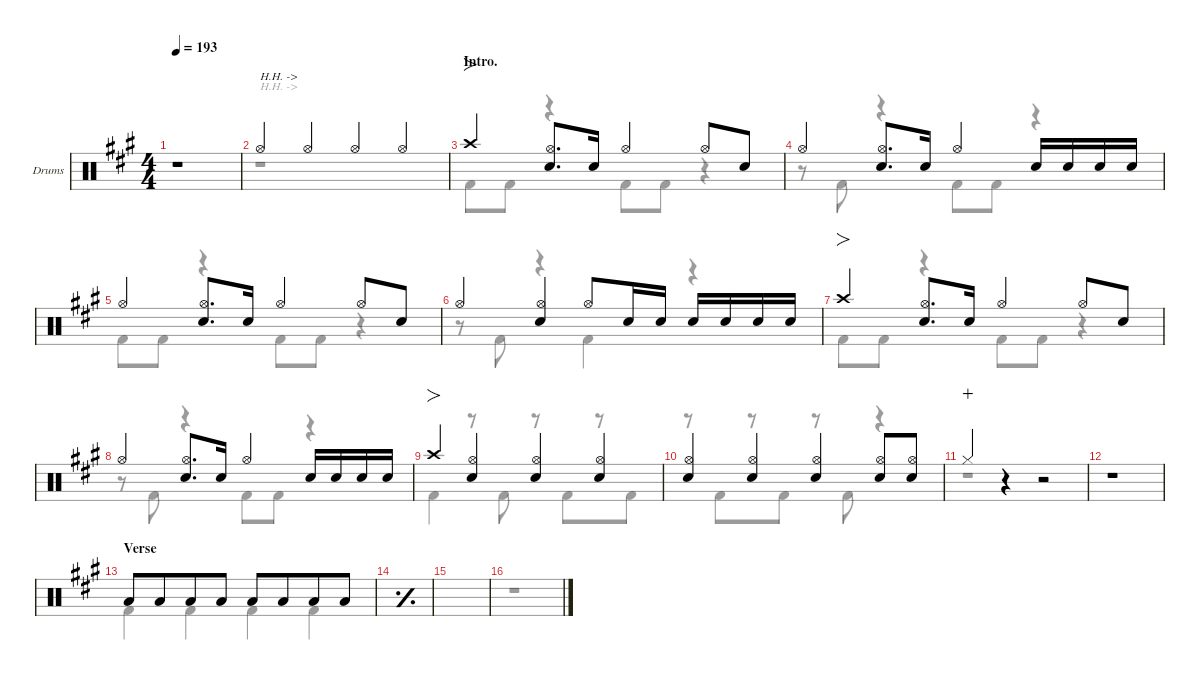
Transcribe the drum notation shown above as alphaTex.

\defaultSystemsLayout 4
\hideDynamics
\bracketExtendMode nobrackets
\firstSystemTrackNameOrientation horizontal
\track ("Drums" "Drums") {defaultSystemsLayout 4 instrument percussion}
\staff {score}
\articulation defaults
\voice
\ts (4 4)
\beaming (8 4 4)
\tempo 193
\clef neutral
\scale
0.516799
\ks a
r.1{dy f beam Up} |
\scale
0.483201 "Hi-Hat (open)"{acc forcenatural}.4{txt "H.H. ->" beam Up} "Hi-Hat (open)"{acc forcenatural}.4{beam Up} "Hi-Hat (open)"{acc forcenatural}.4{beam Up} "Hi-Hat (open)"{acc forcenatural}.4{beam Up} |
\section ("" "Intro.")
\scale
0.266618 "Crash high (hit)"{acc forcenatural}.4{fo beam Up} ("Hi-Hat (open)"{acc forcenatural} "Snare (hit) 2"{acc forcenatural}).8{d beam Up} "Snare (hit) 2"{acc forcenatural}.16{beam Up} "Hi-Hat (open)"{acc forcenatural}.4{beam Up} "Hi-Hat (open)"{acc forcenatural}.8{beam Up} "Snare (hit) 2"{acc forcenatural}.8{beam Up} |
\scale
0.244461 "Hi-Hat (open)"{acc forcenatural}.4{beam Up} ("Hi-Hat (open)"{acc forcenatural} "Snare (hit) 2"{acc forcenatural}).8{d beam Up} "Snare (hit) 2"{acc forcenatural}.16{beam Up} "Hi-Hat (open)"{acc forcenatural}.4{beam Up} "Snare (hit) 2"{acc forcenatural}.16{beam Up} "Snare (hit) 2"{acc forcenatural}.16{dy mf beam Up} "Snare (hit) 2"{acc forcenatural}.16{dy f beam Up} "Snare (hit) 2"{acc forcenatural}.16{dy mf beam Up} |
\scale
0.244461 "Hi-Hat (open)"{acc forcenatural}.4{dy f beam Up} ("Hi-Hat (open)"{acc forcenatural} "Snare (hit) 2"{acc forcenatural}).8{d beam Up} "Snare (hit) 2"{acc forcenatural}.16{beam Up} "Hi-Hat (open)"{acc forcenatural}.4{beam Up} "Hi-Hat (open)"{acc forcenatural}.8{beam Up} "Snare (hit) 2"{acc forcenatural}.8{beam Up} |
\scale
0.244461 "Hi-Hat (open)"{acc forcenatural}.4{beam Up} ("Hi-Hat (open)"{acc forcenatural} "Snare (hit) 2"{acc forcenatural}).4{beam Up} "Hi-Hat (open)"{acc forcenatural}.8{beam Up} "Snare (hit) 2"{acc forcenatural}.16{beam Up} "Snare (hit) 2"{acc forcenatural}.16{dy mf beam Up beam split} "Snare (hit) 2"{acc forcenatural}.16{dy f beam Up} "Snare (hit) 2"{acc forcenatural}.16{dy mf beam Up} "Snare (hit) 2"{acc forcenatural}.16{dy f beam Up} "Snare (hit) 2"{acc forcenatural}.16{dy mf beam Up} |
\scale
0.266618 "Crash high (hit)"{acc forcenatural}.4{fo dy f beam Up} ("Hi-Hat (open)"{acc forcenatural} "Snare (hit) 2"{acc forcenatural}).8{d beam Up} "Snare (hit) 2"{acc forcenatural}.16{beam Up} "Hi-Hat (open)"{acc forcenatural}.4{beam Up} "Hi-Hat (open)"{acc forcenatural}.8{beam Up} "Snare (hit) 2"{acc forcenatural}.8{beam Up} |
\scale
0.244461 "Hi-Hat (open)"{acc forcenatural}.4{beam Up} ("Hi-Hat (open)"{acc forcenatural} "Snare (hit) 2"{acc forcenatural}).8{d beam Up} "Snare (hit) 2"{acc forcenatural}.16{beam Up} "Hi-Hat (open)"{acc forcenatural}.4{beam Up} "Snare (hit) 2"{acc forcenatural}.16{beam Up} "Snare (hit) 2"{acc forcenatural}.16{dy mf beam Up} "Snare (hit) 2"{acc forcenatural}.16{dy f beam Up} "Snare (hit) 2"{acc forcenatural}.16{dy mf beam Up} |
\scale
0.244461 "Crash high (hit)"{acc forcenatural}.4{fo dy f beam Up} ("Hi-Hat (open)"{acc forcenatural} "Snare (hit) 2"{acc forcenatural}).4{beam Up} ("Hi-Hat (open)"{acc forcenatural} "Snare (hit) 2"{acc forcenatural}).4{beam Up} ("Hi-Hat (open)"{acc forcenatural} "Snare (hit) 2"{acc forcenatural}).4{beam Up} |
\scale
0.244461 ("Hi-Hat (open)"{acc forcenatural} "Snare (hit) 2"{acc forcenatural}).4{beam Up} ("Hi-Hat (open)"{acc forcenatural} "Snare (hit) 2"{acc forcenatural}).4{beam Up} ("Hi-Hat (open)"{acc forcenatural} "Snare (hit) 2"{acc forcenatural}).4{beam Up} ("Snare (hit) 2"{acc forcenatural} "Hi-Hat (open)"{acc forcenatural}).8{beam Up} ("Snare (hit) 2"{acc forcenatural} "Hi-Hat (open)"{acc forcenatural}).8{beam Up} |
\scale
0.511079 "Hi-Hat (closed)"{acc forcenatural}.4{dy mp wahc beam Up} r.4{beam Up} r.2{beam Up} |
\scale
0.488921 r.1{beam Up} |
\section ("" "Verse")
\scale
0.266618 "Low Tom (hit)"{acc forcenatural}.8{dy f beam Up} "Low Tom (hit)"{acc forcenatural}.8{beam Up} "Low Tom (hit)"{acc forcenatural}.8{beam Up} "Low Tom (hit)"{acc forcenatural}.8{beam Up} "Low Tom (hit)"{acc forcenatural}.8{beam Up} "Low Tom (hit)"{acc forcenatural}.8{beam Up} "Low Tom (hit)"{acc forcenatural}.8{beam Up} "Low Tom (hit)"{acc forcenatural}.8{beam Up} |
\simile simple
\scale
0.244461 |
\scale
0.244461 |
\scale
0.244461
\voice
\clef neutral
\ottava regular
\simile none
\scale
0.516799
\ks a
r.1{dy f beam Down} |
\scale
0.483201 r.1{txt "H.H. ->" beam Down} |
\scale
0.266618 "Kick (hit) 2"{acc forcenatural}.8{beam Down} "Kick (hit) 2"{acc forcenatural}.8{beam Down} r.4{beam Down} "Kick (hit) 2"{acc forcenatural}.8{beam Down} "Kick (hit) 2"{acc forcenatural}.8{beam Down} r.4{beam Down} |
\scale
0.244461 r.8{beam Down} "Kick (hit) 2"{acc forcenatural}.8{beam Down} r.4{beam Down} "Kick (hit) 2"{acc forcenatural}.8{beam Down} "Kick (hit) 2"{acc forcenatural}.8{beam Down} r.4{beam Down} |
\scale
0.244461 "Kick (hit) 2"{acc forcenatural}.8{beam Down} "Kick (hit) 2"{acc forcenatural}.8{beam Down} r.4{beam Down} "Kick (hit) 2"{acc forcenatural}.8{beam Down} "Kick (hit) 2"{acc forcenatural}.8{beam Down} r.4{beam Down} |
\scale
0.244461 r.8{beam Down} "Kick (hit) 2"{acc forcenatural}.8{beam Down} r.4{beam Down} "Kick (hit) 2"{acc forcenatural}.4{beam Down} r.4{beam Down} |
\scale
0.266618 "Kick (hit) 2"{acc forcenatural}.8{beam Down} "Kick (hit) 2"{acc forcenatural}.8{beam Down} r.4{beam Down} "Kick (hit) 2"{acc forcenatural}.8{beam Down} "Kick (hit) 2"{acc forcenatural}.8{beam Down} r.4{beam Down} |
\scale
0.244461 r.8{beam Down} "Kick (hit) 2"{acc forcenatural}.8{beam Down} r.4{beam Down} "Kick (hit) 2"{acc forcenatural}.8{beam Down} "Kick (hit) 2"{acc forcenatural}.8{beam Down} r.4{beam Down} |
\scale
0.244461 "Kick (hit) 2"{acc forcenatural}.4{beam Down} r.8{beam Down} "Kick (hit) 2"{acc forcenatural}.8{beam Down} r.8{beam Down} "Kick (hit) 2"{acc forcenatural}.8{beam Down} r.8{beam Down} "Kick (hit) 2"{acc forcenatural}.8{beam Down} |
\scale
0.244461 r.8{beam Down} "Kick (hit) 2"{acc forcenatural}.8{beam Down} r.8{beam Down} "Kick (hit) 2"{acc forcenatural}.8{beam Down} r.8{beam Down} "Kick (hit) 2"{acc forcenatural}.8{beam Down} r.4{beam Down} |
\scale
0.511079 r.1{beam Down} |
\scale
0.488921 r.1{beam Down} |
\scale
0.266618 "Kick (hit) 2"{acc forcenatural}.4{beam Down} "Kick (hit) 2"{acc forcenatural}.4{beam Down} "Kick (hit) 2"{acc forcenatural}.4{beam Down} "Kick (hit) 2"{acc forcenatural}.4{beam Down} |
\simile simple
\scale
0.244461 |
\scale
0.244461 |
\scale
0.244461
